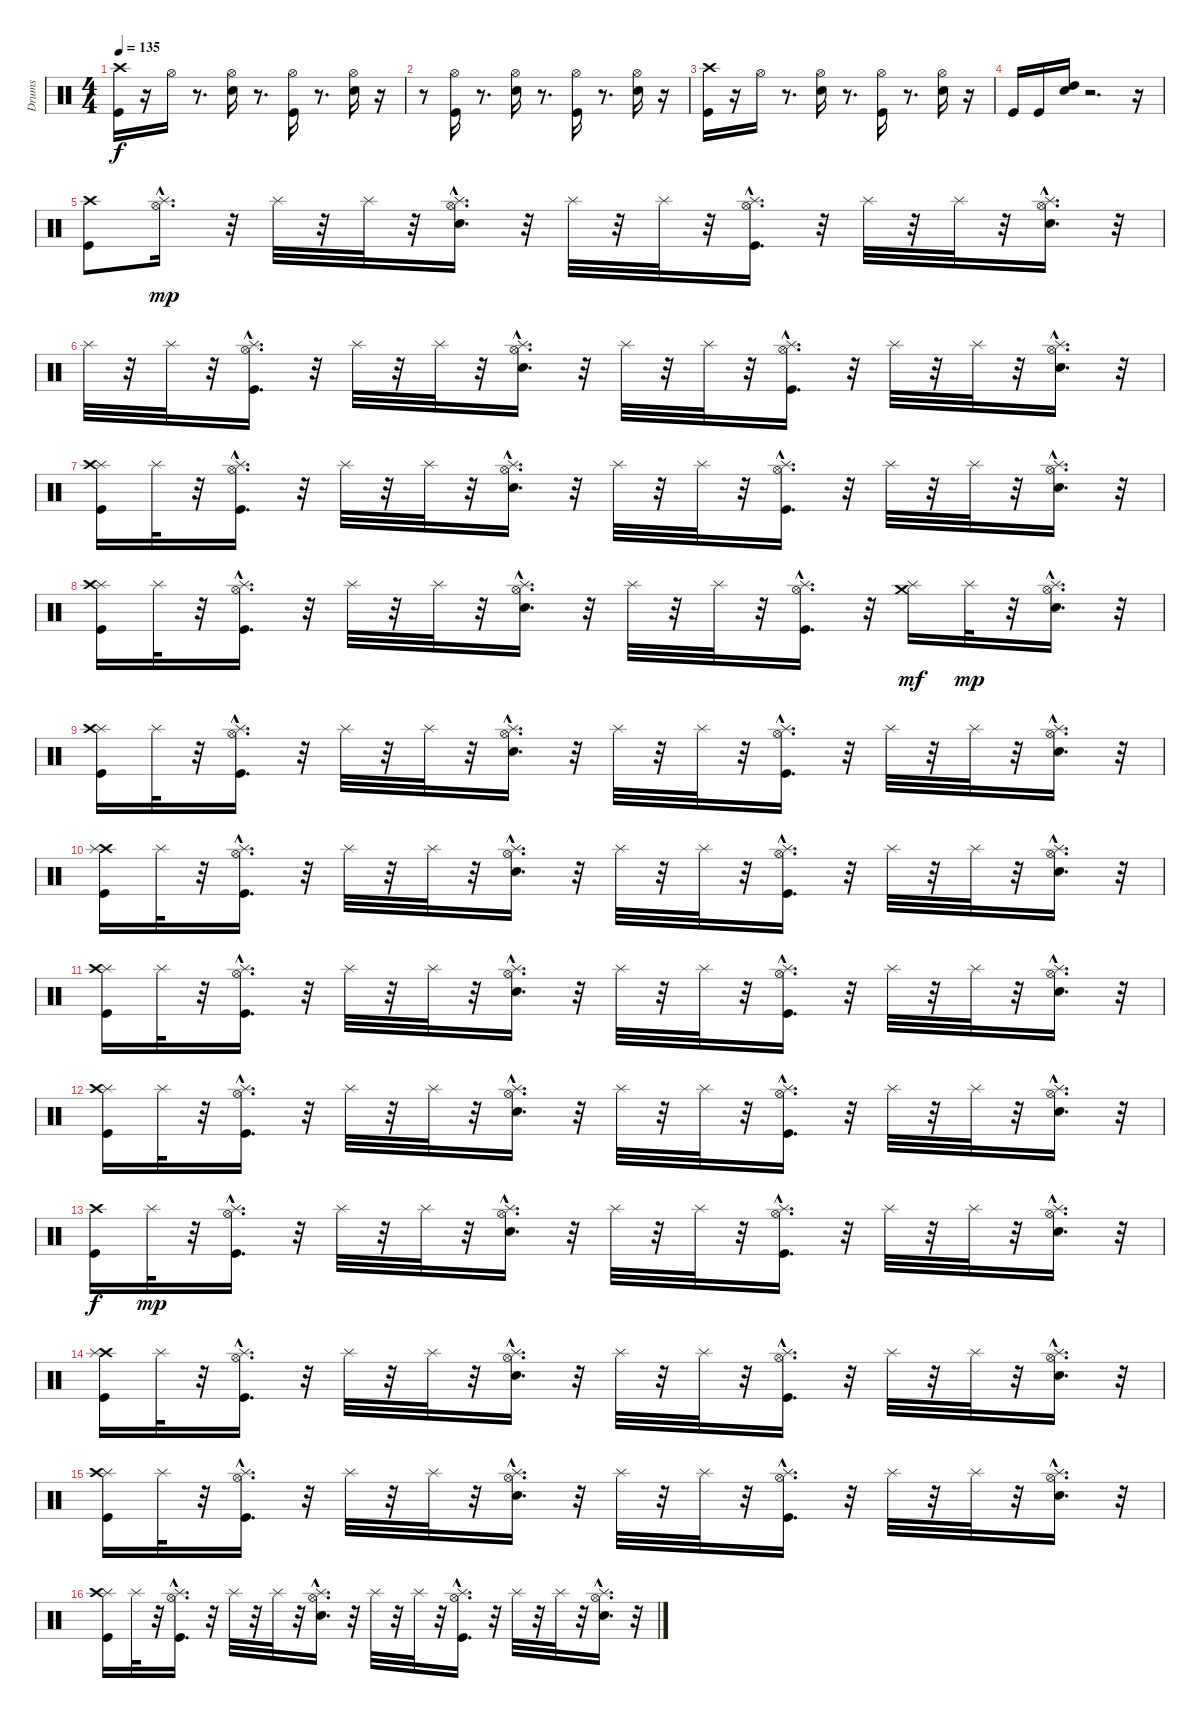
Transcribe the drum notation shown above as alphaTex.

\track ("Drums" "Drums") {instrument percussion}
\staff {score}
\articulation defaults
\ts (4 4)
\tempo 135
\clef neutral
\ks c
("Crash high (hit)" "Kick (hit)").16{dy f} r.16 "Hi-Hat (open)".16 r.8{d} ("Hi-Hat (open)" "Snare (hit) 2").16 r.8{d} ("Hi-Hat (open)" "Kick (hit)").16 r.8{d} ("Hi-Hat (open)" "Snare (hit) 2").16 r.16 |
r.8 ("Kick (hit)" "Hi-Hat (open)").16 r.8{d} ("Hi-Hat (open)" "Snare (hit) 2").16 r.8{d} ("Hi-Hat (open)" "Kick (hit)").16 r.8{d} ("Hi-Hat (open)" "Snare (hit) 2").16 r.16 |
("Kick (hit)" "Crash high (hit)").16 r.16 "Hi-Hat (open)".16 r.8{d} ("Hi-Hat (open)" "Snare (hit) 2").16 r.8{d} ("Hi-Hat (open)" "Kick (hit)").16 r.8{d} ("Hi-Hat (open)" "Snare (hit) 2").16 r.16 |
"Kick (hit)".16 "Kick (hit)".16 ("Snare (hit) 2" "High Tom (hit)").16 r.2{d} r.16 |
("Kick (hit)" "Crash high (hit)").8 ("Splash (hit)"{hac} "Hi-Hat (open)").16{d dy mp} r.32 "Splash (hit)".32 r.32 "Splash (hit)".32 r.32 ("Snare (hit) 2" "Hi-Hat (open)" "Splash (hit)"{hac}).16{d} r.32 "Splash (hit)".32 r.32 "Splash (hit)".32 r.32 ("Hi-Hat (open)" "Kick (hit)" "Splash (hit)"{hac}).16{d} r.32 "Splash (hit)".32 r.32 "Splash (hit)".32 r.32 ("Hi-Hat (open)" "Snare (hit) 2" "Splash (hit)"{hac}).16{d} r.32 |
"Splash (hit)".32 r.32 "Splash (hit)".32 r.32 ("Hi-Hat (open)" "Kick (hit)" "Splash (hit)"{hac}).16{d} r.32 "Splash (hit)".32 r.32 "Splash (hit)".32 r.32 ("Hi-Hat (open)" "Snare (hit) 2" "Splash (hit)"{hac}).16{d} r.32 "Splash (hit)".32 r.32 "Splash (hit)".32 r.32 ("Hi-Hat (open)" "Kick (hit)" "Splash (hit)"{hac}).16{d} r.32 "Splash (hit)".32 r.32 "Splash (hit)".32 r.32 ("Hi-Hat (open)" "Snare (hit) 2" "Splash (hit)"{hac}).16{d} r.32 |
("Splash (hit)" "Crash high (hit)" "Kick (hit)").16 "Splash (hit)".32 r.32 ("Splash (hit)"{hac} "Hi-Hat (open)" "Kick (hit)").16{d} r.32 "Splash (hit)".32 r.32 "Splash (hit)".32 r.32 ("Snare (hit) 2" "Hi-Hat (open)" "Splash (hit)"{hac}).16{d} r.32 "Splash (hit)".32 r.32 "Splash (hit)".32 r.32 ("Hi-Hat (open)" "Kick (hit)" "Splash (hit)"{hac}).16{d} r.32 "Splash (hit)".32 r.32 "Splash (hit)".32 r.32 ("Hi-Hat (open)" "Snare (hit) 2" "Splash (hit)"{hac}).16{d} r.32 |
("Splash (hit)" "Kick (hit)" "Crash high (hit)").16 "Splash (hit)".32 r.32 ("Hi-Hat (open)" "Kick (hit)" "Splash (hit)"{hac}).16{d} r.32 "Splash (hit)".32 r.32 "Splash (hit)".32 r.32 ("Snare (hit) 2" "Hi-Hat (open)" "Splash (hit)"{hac}).16{d} r.32 "Splash (hit)".32 r.32 "Splash (hit)".32 r.32 ("Hi-Hat (open)" "Kick (hit)" "Splash (hit)"{hac}).16{d} r.32 ("Splash (hit)" "Crash medium (hit)").16{dy mf} "Splash (hit)".32{dy mp} r.32 ("Hi-Hat (open)" "Snare (hit) 2" "Splash (hit)"{hac}).16{d} r.32 |
("Splash (hit)" "Kick (hit)" "Crash high (hit)").16 "Splash (hit)".32 r.32 ("Splash (hit)"{hac} "Hi-Hat (open)" "Kick (hit)").16{d} r.32 "Splash (hit)".32 r.32 "Splash (hit)".32 r.32 ("Snare (hit) 2" "Hi-Hat (open)" "Splash (hit)"{hac}).16{d} r.32 "Splash (hit)".32 r.32 "Splash (hit)".32 r.32 ("Hi-Hat (open)" "Kick (hit)" "Splash (hit)"{hac}).16{d} r.32 "Splash (hit)".32 r.32 "Splash (hit)".32 r.32 ("Hi-Hat (open)" "Snare (hit) 2" "Splash (hit)"{hac}).16{d} r.32 |
("Crash high (hit)" "Kick (hit)" "Splash (hit)").16 "Splash (hit)".32 r.32 ("Hi-Hat (open)" "Splash (hit)"{hac} "Kick (hit)").16{d} r.32 "Splash (hit)".32 r.32 "Splash (hit)".32 r.32 ("Hi-Hat (open)" "Snare (hit) 2" "Splash (hit)"{hac}).16{d} r.32 "Splash (hit)".32 r.32 "Splash (hit)".32 r.32 ("Hi-Hat (open)" "Kick (hit)" "Splash (hit)"{hac}).16{d} r.32 "Splash (hit)".32 r.32 "Splash (hit)".32 r.32 ("Hi-Hat (open)" "Snare (hit) 2" "Splash (hit)"{hac}).16{d} r.32 |
("Splash (hit)" "Crash high (hit)" "Kick (hit)").16 "Splash (hit)".32 r.32 ("Hi-Hat (open)" "Splash (hit)"{hac} "Kick (hit)").16{d} r.32 "Splash (hit)".32 r.32 "Splash (hit)".32 r.32 ("Hi-Hat (open)" "Snare (hit) 2" "Splash (hit)"{hac}).16{d} r.32 "Splash (hit)".32 r.32 "Splash (hit)".32 r.32 ("Hi-Hat (open)" "Kick (hit)" "Splash (hit)"{hac}).16{d} r.32 "Splash (hit)".32 r.32 "Splash (hit)".32 r.32 ("Hi-Hat (open)" "Snare (hit) 2" "Splash (hit)"{hac}).16{d} r.32 |
("Splash (hit)" "Crash high (hit)" "Kick (hit)").16 "Splash (hit)".32 r.32 ("Hi-Hat (open)" "Splash (hit)"{hac} "Kick (hit)").16{d} r.32 "Splash (hit)".32 r.32 "Splash (hit)".32 r.32 ("Hi-Hat (open)" "Snare (hit) 2" "Splash (hit)"{hac}).16{d} r.32 "Splash (hit)".32 r.32 "Splash (hit)".32 r.32 ("Hi-Hat (open)" "Kick (hit)" "Splash (hit)"{hac}).16{d} r.32 "Splash (hit)".32 r.32 "Splash (hit)".32 r.32 ("Hi-Hat (open)" "Snare (hit) 2" "Splash (hit)"{hac}).16{d} r.32 |
("Kick (hit)" "Crash high (hit)").16{dy f} "Splash (hit)".32{dy mp} r.32 ("Splash (hit)"{hac} "Hi-Hat (open)" "Kick (hit)").16{d} r.32 "Splash (hit)".32 r.32 "Splash (hit)".32 r.32 ("Snare (hit) 2" "Hi-Hat (open)" "Splash (hit)"{hac}).16{d} r.32 "Splash (hit)".32 r.32 "Splash (hit)".32 r.32 ("Hi-Hat (open)" "Kick (hit)" "Splash (hit)"{hac}).16{d} r.32 "Splash (hit)".32 r.32 "Splash (hit)".32 r.32 ("Hi-Hat (open)" "Snare (hit) 2" "Splash (hit)"{hac}).16{d} r.32 |
("Crash high (hit)" "Kick (hit)" "Splash (hit)").16 "Splash (hit)".32 r.32 ("Hi-Hat (open)" "Splash (hit)"{hac} "Kick (hit)").16{d} r.32 "Splash (hit)".32 r.32 "Splash (hit)".32 r.32 ("Hi-Hat (open)" "Snare (hit) 2" "Splash (hit)"{hac}).16{d} r.32 "Splash (hit)".32 r.32 "Splash (hit)".32 r.32 ("Hi-Hat (open)" "Kick (hit)" "Splash (hit)"{hac}).16{d} r.32 "Splash (hit)".32 r.32 "Splash (hit)".32 r.32 ("Hi-Hat (open)" "Snare (hit) 2" "Splash (hit)"{hac}).16{d} r.32 |
("Splash (hit)" "Crash high (hit)" "Kick (hit)").16 "Splash (hit)".32 r.32 ("Hi-Hat (open)" "Splash (hit)"{hac} "Kick (hit)").16{d} r.32 "Splash (hit)".32 r.32 "Splash (hit)".32 r.32 ("Hi-Hat (open)" "Snare (hit) 2" "Splash (hit)"{hac}).16{d} r.32 "Splash (hit)".32 r.32 "Splash (hit)".32 r.32 ("Hi-Hat (open)" "Kick (hit)" "Splash (hit)"{hac}).16{d} r.32 "Splash (hit)".32 r.32 "Splash (hit)".32 r.32 ("Hi-Hat (open)" "Snare (hit) 2" "Splash (hit)"{hac}).16{d} r.32 |
("Splash (hit)" "Crash high (hit)" "Kick (hit)").16 "Splash (hit)".32 r.32 ("Hi-Hat (open)" "Splash (hit)"{hac} "Kick (hit)").16{d} r.32 "Splash (hit)".32 r.32 "Splash (hit)".32 r.32 ("Hi-Hat (open)" "Snare (hit) 2" "Splash (hit)"{hac}).16{d} r.32 "Splash (hit)".32 r.32 "Splash (hit)".32 r.32 ("Hi-Hat (open)" "Kick (hit)" "Splash (hit)"{hac}).16{d} r.32 "Splash (hit)".32 r.32 "Splash (hit)".32 r.32 ("Hi-Hat (open)" "Snare (hit) 2" "Splash (hit)"{hac}).16{d} r.32
